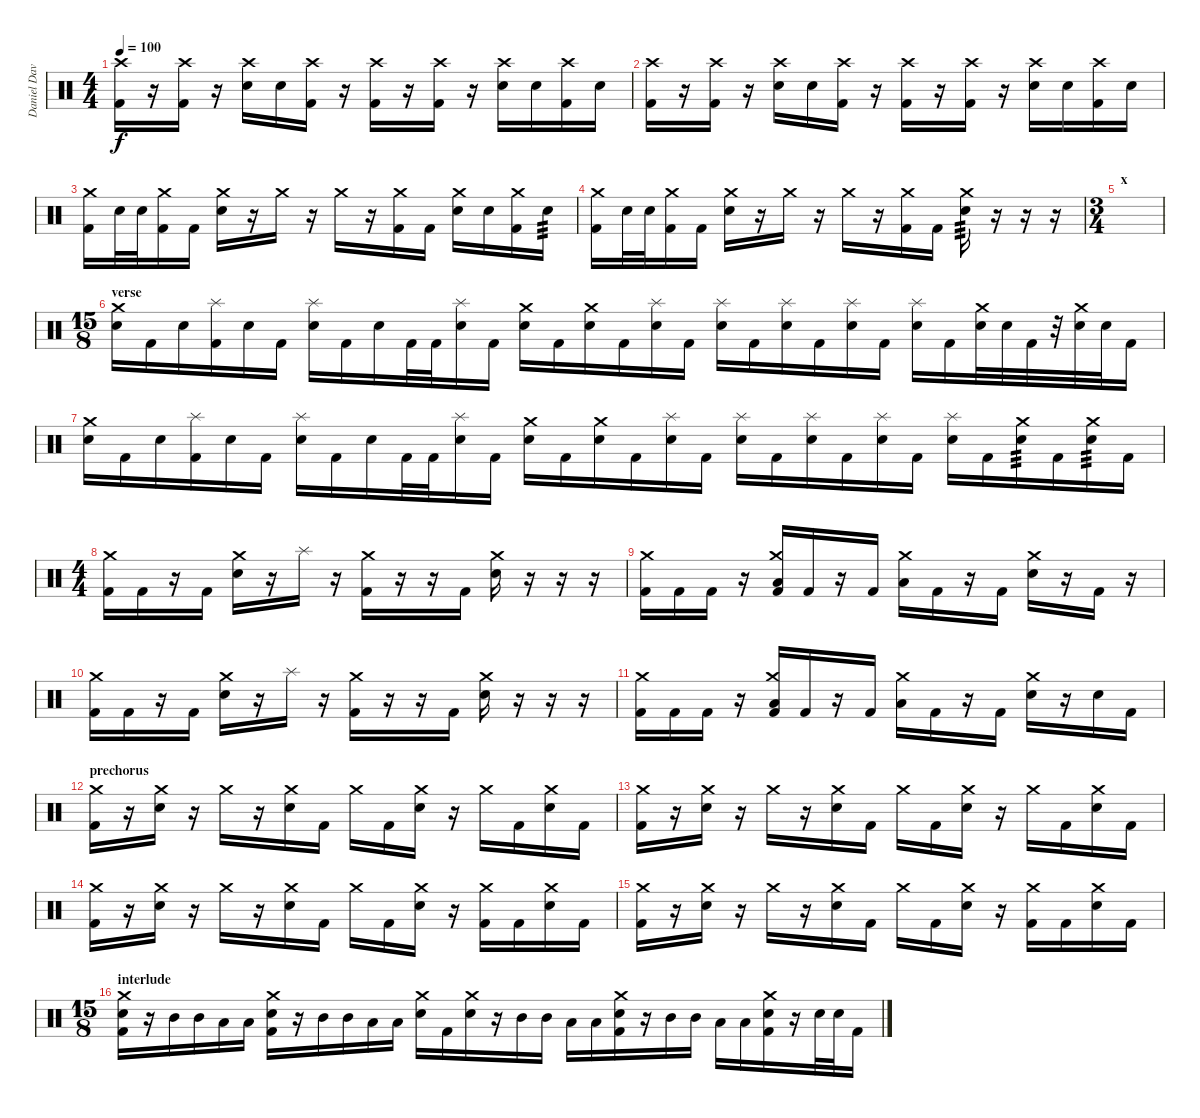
\track ("Daniel Davison" "Daniel Dav") {instrument percussion}
\staff {score}
\articulation defaults
\ts (4 4)
\tempo 100
\clef neutral
\ks c
("Crash high (hit)" "Kick (hit) 2").16{dy f volume 13} r.16 ("Crash high (hit)" "Kick (hit) 2").16 r.16 ("Crash high (hit)" "Electric Snare (hit)").16 "Electric Snare (hit)".16 ("Crash high (hit)" "Kick (hit) 2").16 r.16 ("Crash high (hit)" "Kick (hit) 2").16 r.16 ("Crash high (hit)" "Kick (hit) 2").16 r.16 ("Crash high (hit)" "Electric Snare (hit)").16 "Electric Snare (hit)".16 ("Crash high (hit)" "Kick (hit) 2").16 "Electric Snare (hit)".16 |
("Crash high (hit)" "Kick (hit) 2").16{volume 13} r.16 ("Crash high (hit)" "Kick (hit) 2").16 r.16 ("Crash high (hit)" "Electric Snare (hit)").16 "Electric Snare (hit)".16 ("Crash high (hit)" "Kick (hit) 2").16 r.16 ("Crash high (hit)" "Kick (hit) 2").16 r.16 ("Crash high (hit)" "Kick (hit) 2").16 r.16 ("Crash high (hit)" "Electric Snare (hit)").16 "Electric Snare (hit)".16 ("Crash high (hit)" "Kick (hit) 2").16 "Electric Snare (hit)".16 |
("Crash medium (hit)" "Kick (hit) 2").16 "Electric Snare (hit)".32 "Electric Snare (hit)".32 ("Crash medium (hit)" "Kick (hit) 2").16 "Kick (hit) 2".16 ("Crash medium (hit)" "Electric Snare (hit)").16 r.16 "Crash medium (hit)".16 r.16 "Crash medium (hit)".16 r.16 ("Crash medium (hit)" "Kick (hit) 2").16 "Kick (hit) 2".16 ("Crash medium (hit)" "Electric Snare (hit)").16 "Electric Snare (hit)".16 ("Crash medium (hit)" "Kick (hit) 2").16 "Electric Snare (hit)".16{tp 3} |
("Crash medium (hit)" "Kick (hit) 2").16 "Electric Snare (hit)".32 "Electric Snare (hit)".32 ("Crash medium (hit)" "Kick (hit) 2").16 "Kick (hit) 2".16 ("Crash medium (hit)" "Electric Snare (hit)").16 r.16 "Crash medium (hit)".16 r.16 "Crash medium (hit)".16 r.16 ("Crash medium (hit)" "Kick (hit) 2").16 "Kick (hit) 2".16 ("Crash medium (hit)" "Electric Snare (hit)").16{tp 3} r.16 r.16 r.16 |
\ts (3 4)
\section ("" "x")
|
\ts (15 8)
\section ("" "verse")
("Crash medium (hit)" "Electric Snare (hit)").16 "Kick (hit) 2".16 "Electric Snare (hit)".16 ("Splash (hit)" "Kick (hit) 2").16 "Electric Snare (hit)".16 "Kick (hit) 2".16 ("Splash (hit)" "Electric Snare (hit)").16 "Kick (hit) 2".16 "Electric Snare (hit)".16 "Kick (hit) 2".32 "Kick (hit) 2".32 ("Splash (hit)" "Electric Snare (hit)").16 "Kick (hit) 2".16 ("Crash medium (hit)" "Electric Snare (hit)").16 "Kick (hit) 2".16 ("Crash medium (hit)" "Electric Snare (hit)").16 "Kick (hit) 2".16 ("Splash (hit)" "Electric Snare (hit)").16 "Kick (hit) 2".16 ("Splash (hit)" "Electric Snare (hit)").16 "Kick (hit) 2".16 ("Splash (hit)" "Electric Snare (hit)").16 "Kick (hit) 2".16 ("Splash (hit)" "Electric Snare (hit)").16 "Kick (hit) 2".16 ("Splash (hit)" "Electric Snare (hit)").16 "Kick (hit) 2".16 ("Crash medium (hit)" "Electric Snare (hit)").32 "Electric Snare (hit)".32 "Kick (hit) 2".32 r.32 ("Crash medium (hit)" "Electric Snare (hit)").32 "Electric Snare (hit)".32 "Kick (hit) 2".16 |
("Crash medium (hit)" "Electric Snare (hit)").16 "Kick (hit) 2".16 "Electric Snare (hit)".16 ("Splash (hit)" "Kick (hit) 2").16 "Electric Snare (hit)".16 "Kick (hit) 2".16 ("Splash (hit)" "Electric Snare (hit)").16 "Kick (hit) 2".16 "Electric Snare (hit)".16 "Kick (hit) 2".32 "Kick (hit) 2".32 ("Splash (hit)" "Electric Snare (hit)").16 "Kick (hit) 2".16 ("Crash medium (hit)" "Electric Snare (hit)").16 "Kick (hit) 2".16 ("Crash medium (hit)" "Electric Snare (hit)").16 "Kick (hit) 2".16 ("Splash (hit)" "Electric Snare (hit)").16 "Kick (hit) 2".16 ("Splash (hit)" "Electric Snare (hit)").16 "Kick (hit) 2".16 ("Splash (hit)" "Electric Snare (hit)").16 "Kick (hit) 2".16 ("Splash (hit)" "Electric Snare (hit)").16 "Kick (hit) 2".16 ("Splash (hit)" "Electric Snare (hit)").16 "Kick (hit) 2".16 ("Crash medium (hit)" "Electric Snare (hit)").16{tp 3} "Kick (hit) 2".16 ("Crash medium (hit)" "Electric Snare (hit)").16{tp 3} "Kick (hit) 2".16 |
\ts (4 4)
("Crash medium (hit)" "Kick (hit) 2").16 "Kick (hit) 2".16 r.16 "Kick (hit) 2".16 ("Crash medium (hit)" "Electric Snare (hit)").16 r.16 "Splash (hit)".16 r.16 ("Crash medium (hit)" "Kick (hit) 2").16 r.16 r.16 "Kick (hit) 2".16 ("Crash medium (hit)" "Electric Snare (hit)").16 r.16 r.16 r.16 |
("Crash medium (hit)" "Kick (hit) 2").16 "Kick (hit) 2".16 "Kick (hit) 2".16 r.16 ("Crash medium (hit)" "Low Tom (hit)" "Kick (hit) 2").16 "Kick (hit) 2".16 r.16 "Kick (hit) 2".16 ("Crash medium (hit)" "Low Tom (hit)").16 "Kick (hit) 2".16 r.16 "Kick (hit) 2".16 ("Crash medium (hit)" "Electric Snare (hit)").16 r.16 "Kick (hit) 2".16 r.16 |
("Crash medium (hit)" "Kick (hit) 2").16 "Kick (hit) 2".16 r.16 "Kick (hit) 2".16 ("Crash medium (hit)" "Electric Snare (hit)").16 r.16 "Splash (hit)".16 r.16 ("Crash medium (hit)" "Kick (hit) 2").16 r.16 r.16 "Kick (hit) 2".16 ("Crash medium (hit)" "Electric Snare (hit)").16 r.16 r.16 r.16 |
("Crash medium (hit)" "Kick (hit) 2").16 "Kick (hit) 2".16 "Kick (hit) 2".16 r.16 ("Crash medium (hit)" "Low Tom (hit)" "Kick (hit) 2").16 "Kick (hit) 2".16 r.16 "Kick (hit) 2".16 ("Crash medium (hit)" "Low Tom (hit)").16 "Kick (hit) 2".16 r.16 "Kick (hit) 2".16 ("Crash medium (hit)" "Electric Snare (hit)").16 r.16 "Electric Snare (hit)".16 "Kick (hit) 2".16 |
\section ("" "prechorus")
("Crash medium (hit)" "Kick (hit) 2").16 r.16 ("Crash medium (hit)" "Electric Snare (hit)").16 r.16 "Crash medium (hit)".16 r.16 ("Crash medium (hit)" "Electric Snare (hit)").16 "Kick (hit) 2".16 "Crash medium (hit)".16 "Kick (hit) 2".16 ("Crash medium (hit)" "Electric Snare (hit)").16 r.16 "Crash medium (hit)".16 "Kick (hit) 2".16 ("Crash medium (hit)" "Electric Snare (hit)").16 "Kick (hit) 2".16 |
("Crash medium (hit)" "Kick (hit) 2").16 r.16 ("Crash medium (hit)" "Electric Snare (hit)").16 r.16 "Crash medium (hit)".16 r.16 ("Crash medium (hit)" "Electric Snare (hit)").16 "Kick (hit) 2".16 "Crash medium (hit)".16 "Kick (hit) 2".16 ("Crash medium (hit)" "Electric Snare (hit)").16 r.16 "Crash medium (hit)".16 "Kick (hit) 2".16 ("Crash medium (hit)" "Electric Snare (hit)").16 "Kick (hit) 2".16 |
("Crash medium (hit)" "Kick (hit) 2").16 r.16 ("Crash medium (hit)" "Electric Snare (hit)").16 r.16 "Crash medium (hit)".16 r.16 ("Crash medium (hit)" "Electric Snare (hit)").16 "Kick (hit) 2".16 "Crash medium (hit)".16 "Kick (hit) 2".16 ("Crash medium (hit)" "Electric Snare (hit)").16 r.16 ("Crash medium (hit)" "Kick (hit) 2").16 "Kick (hit) 2".16 ("Crash medium (hit)" "Electric Snare (hit)").16 "Kick (hit) 2".16 |
("Crash medium (hit)" "Kick (hit) 2").16 r.16 ("Crash medium (hit)" "Electric Snare (hit)").16 r.16 "Crash medium (hit)".16 r.16 ("Crash medium (hit)" "Electric Snare (hit)").16 "Kick (hit) 2".16 "Crash medium (hit)".16 "Kick (hit) 2".16 ("Crash medium (hit)" "Electric Snare (hit)").16 r.16 ("Crash medium (hit)" "Kick (hit) 2").16 "Kick (hit) 2".16 ("Crash medium (hit)" "Electric Snare (hit)").16 "Kick (hit) 2".16 |
\ts (15 8)
\section ("" "interlude")
("Crash medium (hit)" "Electric Snare (hit)" "Kick (hit) 2").16 r.16 "Mid Tom (hit)".16 "Mid Tom (hit)".16 "Low Tom (hit)".16 "Low Tom (hit)".16 ("Crash medium (hit)" "Electric Snare (hit)" "Kick (hit) 2").16 r.16 "Mid Tom (hit)".16 "Mid Tom (hit)".16 "Low Tom (hit)".16 "Low Tom (hit)".16 ("Crash medium (hit)" "Electric Snare (hit)").16 "Kick (hit) 2".16 ("Crash medium (hit)" "Electric Snare (hit)").16 r.16 "Mid Tom (hit)".16 "Mid Tom (hit)".16 "Low Tom (hit)".16 "Low Tom (hit)".16 ("Crash medium (hit)" "Electric Snare (hit)" "Kick (hit) 2").16 r.16 "Mid Tom (hit)".16 "Mid Tom (hit)".16 "Low Tom (hit)".16 "Low Tom (hit)".16 ("Crash medium (hit)" "Electric Snare (hit)" "Kick (hit) 2").16 r.16 "Electric Snare (hit)".32 "Electric Snare (hit)".32 "Kick (hit) 2".16
